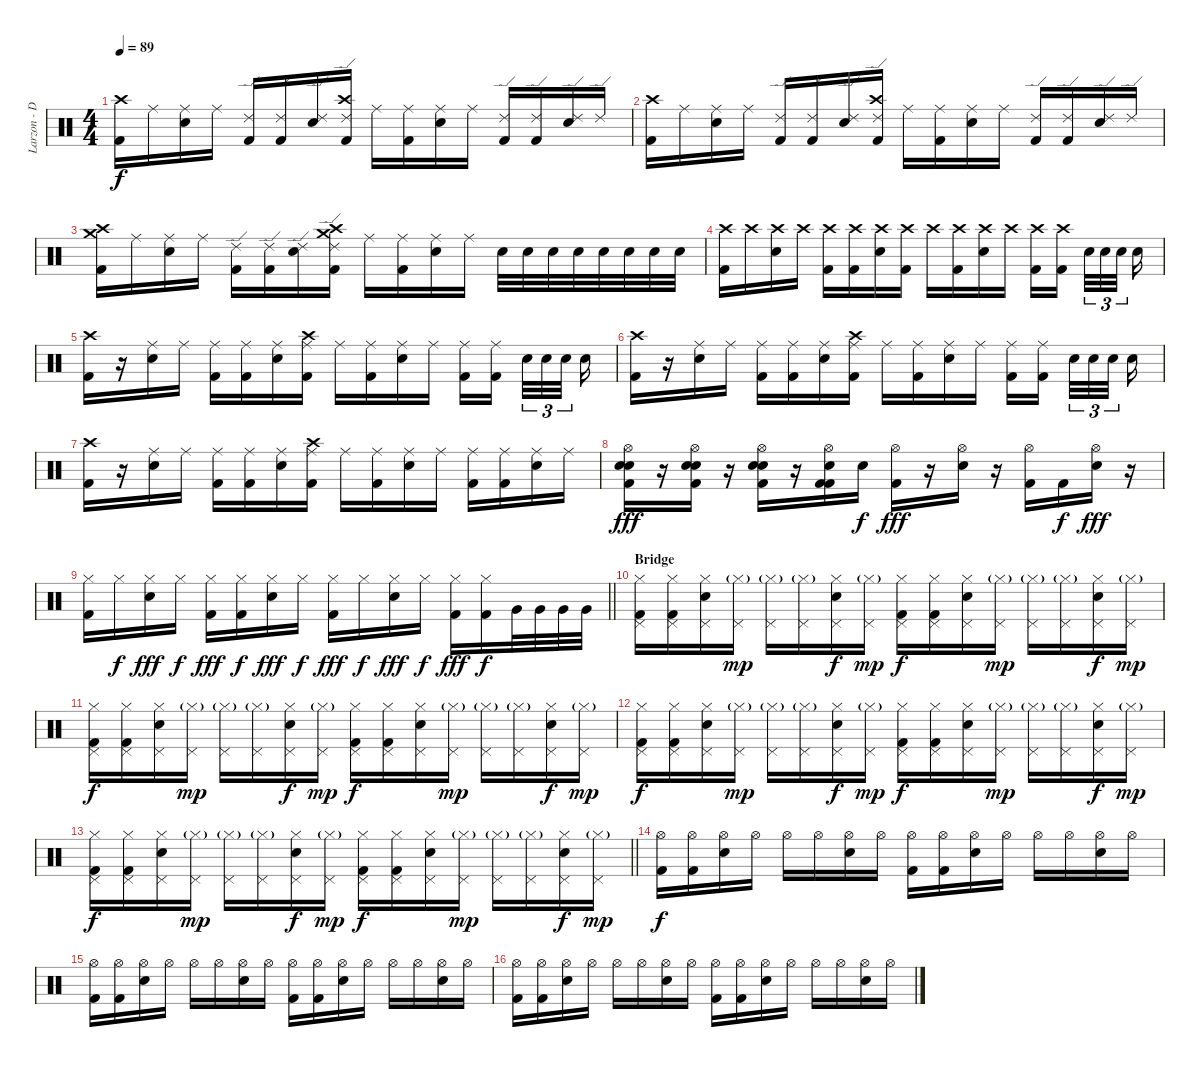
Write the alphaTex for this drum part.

\track ("Larzon - Drums" "Larzon - D") {instrument percussion}
\staff {score}
\articulation defaults
\ts (4 4)
\tempo 89
\clef neutral
\ks c
("Kick (hit) 2" "Crash high (hit)").16{dy f} "Ride (middle)".16 ("Snare (hit) 2" "Ride (middle)").16 "Ride (middle)".16 ("Kick (hit) 2" "Ride (edge) 2").16 ("Kick (hit) 2" "Ride (edge) 2").16 ("Snare (hit) 2" "Ride (edge) 2").16 ("Kick (hit) 2" "Crash high (hit)" "Ride (edge) 2").16 "Ride (middle)".16 ("Kick (hit) 2" "Ride (middle)").16 ("Snare (hit) 2" "Ride (middle)").16 "Ride (middle)".16 ("Kick (hit) 2" "Ride (edge) 2").16 ("Kick (hit) 2" "Ride (edge) 2").16 ("Snare (hit) 2" "Ride (edge) 2").16 "Ride (edge) 2".16 |
("Kick (hit) 2" "Crash high (hit)").16 "Ride (middle)".16 ("Snare (hit) 2" "Ride (middle)").16 "Ride (middle)".16 ("Kick (hit) 2" "Ride (edge) 2").16 ("Kick (hit) 2" "Ride (edge) 2").16 ("Snare (hit) 2" "Ride (edge) 2").16 ("Kick (hit) 2" "Crash high (hit)" "Ride (edge) 2").16 "Ride (middle)".16 ("Kick (hit) 2" "Ride (middle)").16 ("Snare (hit) 2" "Ride (middle)").16 "Ride (middle)".16 ("Kick (hit) 2" "Ride (edge) 2").16 ("Kick (hit) 2" "Ride (edge) 2").16 ("Snare (hit) 2" "Ride (edge) 2").16 "Ride (edge) 2".16 |
("Kick (hit) 2" "Crash medium (hit)" "Crash high (hit)").16 "Ride (middle)".16 ("Snare (hit) 2" "Ride (middle)").16 "Ride (middle)".16 ("Kick (hit) 2" "Ride (edge) 2").16 ("Kick (hit) 2" "Ride (edge) 2").16 ("Snare (hit) 2" "Ride (edge) 2").16 ("Kick (hit) 2" "Crash medium (hit)" "Crash high (hit)" "Ride (edge) 2").16 "Ride (middle)".16 ("Kick (hit) 2" "Ride (middle)").16 ("Snare (hit) 2" "Ride (middle)").16 "Ride (middle)".16 "Snare (hit) 2".32 "Snare (hit) 2".32 "Snare (hit) 2".32 "Snare (hit) 2".32 "Snare (hit) 2".32 "Snare (hit) 2".32 "Snare (hit) 2".32 "Snare (hit) 2".32 |
("Kick (hit) 2" "Crash high (hit)").16 "Crash high (hit)".16 ("Snare (hit) 2" "Crash high (hit)").16 "Crash high (hit)".16 ("Kick (hit) 2" "Crash high (hit)").16 ("Kick (hit) 2" "Crash high (hit)").16 ("Snare (hit) 2" "Crash high (hit)").16 ("Kick (hit) 2" "Crash high (hit)").16 "Crash high (hit)".16 ("Kick (hit) 2" "Crash high (hit)").16 ("Snare (hit) 2" "Crash high (hit)").16 "Crash high (hit)".16 ("Kick (hit) 2" "Crash high (hit)").16 ("Kick (hit) 2" "Crash high (hit)").16 "Snare (hit) 2".32{tu (3 2)} "Snare (hit) 2".32{tu (3 2)} "Snare (hit) 2".32{tu (3 2)} "Snare (hit) 2".16 |
("Kick (hit) 2" "Crash high (hit)").16 r.16 ("Snare (hit) 2" "Ride (middle)").16 "Ride (middle)".16 ("Kick (hit) 2" "Ride (middle)").16 ("Kick (hit) 2" "Ride (middle)").16 ("Snare (hit) 2" "Ride (middle)").16 ("Kick (hit) 2" "Crash high (hit)" "Ride (middle)").16 "Ride (middle)".16 ("Kick (hit) 2" "Ride (middle)").16 ("Snare (hit) 2" "Ride (middle)").16 "Ride (middle)".16 ("Kick (hit) 2" "Ride (middle)").16 ("Kick (hit) 2" "Ride (middle)").16 "Snare (hit) 2".32{tu (3 2)} "Snare (hit) 2".32{tu (3 2)} "Snare (hit) 2".32{tu (3 2)} "Snare (hit) 2".16 |
("Kick (hit) 2" "Crash high (hit)").16 r.16 ("Snare (hit) 2" "Ride (middle)").16 "Ride (middle)".16 ("Kick (hit) 2" "Ride (middle)").16 ("Kick (hit) 2" "Ride (middle)").16 ("Snare (hit) 2" "Ride (middle)").16 ("Kick (hit) 2" "Crash high (hit)" "Ride (middle)").16 "Ride (middle)".16 ("Kick (hit) 2" "Ride (middle)").16 ("Snare (hit) 2" "Ride (middle)").16 "Ride (middle)".16 ("Kick (hit) 2" "Ride (middle)").16 ("Kick (hit) 2" "Ride (middle)").16 "Snare (hit) 2".32{tu (3 2)} "Snare (hit) 2".32{tu (3 2)} "Snare (hit) 2".32{tu (3 2)} "Snare (hit) 2".16 |
("Kick (hit) 2" "Crash high (hit)").16 r.16 ("Snare (hit) 2" "Ride (middle)").16 "Ride (middle)".16 ("Kick (hit) 2" "Ride (middle)").16 ("Kick (hit) 2" "Ride (middle)").16 ("Snare (hit) 2" "Ride (middle)").16 ("Kick (hit) 2" "Crash high (hit)" "Ride (middle)").16 "Ride (middle)".16 ("Kick (hit) 2" "Ride (middle)").16 ("Snare (hit) 2" "Ride (middle)").16 "Ride (middle)".16 ("Kick (hit) 2" "Ride (middle)").16 ("Kick (hit) 2" "Ride (middle)").16 ("Snare (hit) 2" "Ride (middle)").16 "Ride (middle)".16 |
("Snare (hit) 2" "Kick (hit) 2" "Snare (hit) 2" "Hi-Hat (open)").16{dy fff} r.16 ("Snare (hit) 2" "Kick (hit) 2" "Snare (hit) 2" "Hi-Hat (open)").16 r.16 ("Snare (hit) 2" "Kick (hit) 2" "Snare (hit) 2" "Hi-Hat (open)").16 r.16 ("Kick (hit) 2" "Kick (hit) 2" "Snare (hit) 2" "Hi-Hat (open)").16 "Snare (hit) 2".16{dy f} ("Kick (hit) 2" "Hi-Hat (open)").16{dy fff} r.16 ("Snare (hit) 2" "Hi-Hat (open)").16 r.16 ("Kick (hit) 2" "Hi-Hat (open)").16 "Kick (hit) 2".16{dy f} ("Snare (hit) 2" "Hi-Hat (open)").16{dy fff} r.16 |
\barLineRight lightlight
("Kick (hit) 2" "Hi-Hat (closed)").16 "Hi-Hat (closed)".16{dy f} ("Snare (hit) 2" "Hi-Hat (closed)").16{dy fff} "Hi-Hat (closed)".16{dy f} ("Kick (hit) 2" "Hi-Hat (closed)").16{dy fff} ("Kick (hit) 2" "Hi-Hat (closed)").16{dy f} ("Snare (hit) 2" "Hi-Hat (closed)").16{dy fff} "Hi-Hat (closed)".16{dy f} ("Kick (hit) 2" "Hi-Hat (closed)").16{dy fff} "Hi-Hat (closed)".16{dy f} ("Snare (hit) 2" "Hi-Hat (closed)").16{dy fff} "Hi-Hat (closed)".16{dy f} ("Kick (hit) 2" "Hi-Hat (closed)").16{dy fff} ("Kick (hit) 2" "Hi-Hat (closed)").16{dy f} "Very Low Tom (hit)".32 "Very Low Tom (hit)".32 "Very Low Tom (hit)".32 "Very Low Tom (hit)".32 |
\section ("" "Bridge")
("Kick (hit) 2" "Pedal Hi-Hat (hit)" "Hi-Hat (closed)").16 ("Kick (hit) 2" "Pedal Hi-Hat (hit)" "Hi-Hat (closed)").16 ("Snare (hit) 2" "Pedal Hi-Hat (hit)" "Hi-Hat (closed)").16 ("Pedal Hi-Hat (hit)" "Hi-Hat (closed)"{g}).16{dy mp} ("Pedal Hi-Hat (hit)" "Hi-Hat (closed)"{g}).16 ("Pedal Hi-Hat (hit)" "Hi-Hat (closed)"{g}).16 ("Snare (hit) 2" "Pedal Hi-Hat (hit)" "Hi-Hat (closed)").16{dy f} ("Pedal Hi-Hat (hit)" "Hi-Hat (closed)"{g}).16{dy mp} ("Kick (hit) 2" "Pedal Hi-Hat (hit)" "Hi-Hat (closed)").16{dy f} ("Kick (hit) 2" "Pedal Hi-Hat (hit)" "Hi-Hat (closed)").16 ("Snare (hit) 2" "Pedal Hi-Hat (hit)" "Hi-Hat (closed)").16 ("Pedal Hi-Hat (hit)" "Hi-Hat (closed)"{g}).16{dy mp} ("Pedal Hi-Hat (hit)" "Hi-Hat (closed)"{g}).16 ("Pedal Hi-Hat (hit)" "Hi-Hat (closed)"{g}).16 ("Snare (hit) 2" "Pedal Hi-Hat (hit)" "Hi-Hat (closed)").16{dy f} ("Pedal Hi-Hat (hit)" "Hi-Hat (closed)"{g}).16{dy mp} |
("Kick (hit) 2" "Pedal Hi-Hat (hit)" "Hi-Hat (closed)").16{dy f} ("Kick (hit) 2" "Pedal Hi-Hat (hit)" "Hi-Hat (closed)").16 ("Snare (hit) 2" "Pedal Hi-Hat (hit)" "Hi-Hat (closed)").16 ("Pedal Hi-Hat (hit)" "Hi-Hat (closed)"{g}).16{dy mp} ("Pedal Hi-Hat (hit)" "Hi-Hat (closed)"{g}).16 ("Pedal Hi-Hat (hit)" "Hi-Hat (closed)"{g}).16 ("Snare (hit) 2" "Pedal Hi-Hat (hit)" "Hi-Hat (closed)").16{dy f} ("Pedal Hi-Hat (hit)" "Hi-Hat (closed)"{g}).16{dy mp} ("Kick (hit) 2" "Pedal Hi-Hat (hit)" "Hi-Hat (closed)").16{dy f} ("Kick (hit) 2" "Pedal Hi-Hat (hit)" "Hi-Hat (closed)").16 ("Snare (hit) 2" "Pedal Hi-Hat (hit)" "Hi-Hat (closed)").16 ("Pedal Hi-Hat (hit)" "Hi-Hat (closed)"{g}).16{dy mp} ("Pedal Hi-Hat (hit)" "Hi-Hat (closed)"{g}).16 ("Pedal Hi-Hat (hit)" "Hi-Hat (closed)"{g}).16 ("Snare (hit) 2" "Pedal Hi-Hat (hit)" "Hi-Hat (closed)").16{dy f} ("Pedal Hi-Hat (hit)" "Hi-Hat (closed)"{g}).16{dy mp} |
("Kick (hit) 2" "Pedal Hi-Hat (hit)" "Hi-Hat (closed)").16{dy f} ("Kick (hit) 2" "Pedal Hi-Hat (hit)" "Hi-Hat (closed)").16 ("Snare (hit) 2" "Pedal Hi-Hat (hit)" "Hi-Hat (closed)").16 ("Pedal Hi-Hat (hit)" "Hi-Hat (closed)"{g}).16{dy mp} ("Pedal Hi-Hat (hit)" "Hi-Hat (closed)"{g}).16 ("Pedal Hi-Hat (hit)" "Hi-Hat (closed)"{g}).16 ("Snare (hit) 2" "Pedal Hi-Hat (hit)" "Hi-Hat (closed)").16{dy f} ("Pedal Hi-Hat (hit)" "Hi-Hat (closed)"{g}).16{dy mp} ("Kick (hit) 2" "Pedal Hi-Hat (hit)" "Hi-Hat (closed)").16{dy f} ("Kick (hit) 2" "Pedal Hi-Hat (hit)" "Hi-Hat (closed)").16 ("Snare (hit) 2" "Pedal Hi-Hat (hit)" "Hi-Hat (closed)").16 ("Pedal Hi-Hat (hit)" "Hi-Hat (closed)"{g}).16{dy mp} ("Pedal Hi-Hat (hit)" "Hi-Hat (closed)"{g}).16 ("Pedal Hi-Hat (hit)" "Hi-Hat (closed)"{g}).16 ("Snare (hit) 2" "Pedal Hi-Hat (hit)" "Hi-Hat (closed)").16{dy f} ("Pedal Hi-Hat (hit)" "Hi-Hat (closed)"{g}).16{dy mp} |
\barLineRight lightlight
("Kick (hit) 2" "Pedal Hi-Hat (hit)" "Hi-Hat (closed)").16{dy f} ("Kick (hit) 2" "Pedal Hi-Hat (hit)" "Hi-Hat (closed)").16 ("Snare (hit) 2" "Pedal Hi-Hat (hit)" "Hi-Hat (closed)").16 ("Pedal Hi-Hat (hit)" "Hi-Hat (closed)"{g}).16{dy mp} ("Pedal Hi-Hat (hit)" "Hi-Hat (closed)"{g}).16 ("Pedal Hi-Hat (hit)" "Hi-Hat (closed)"{g}).16 ("Snare (hit) 2" "Pedal Hi-Hat (hit)" "Hi-Hat (closed)").16{dy f} ("Pedal Hi-Hat (hit)" "Hi-Hat (closed)"{g}).16{dy mp} ("Kick (hit) 2" "Pedal Hi-Hat (hit)" "Hi-Hat (closed)").16{dy f} ("Kick (hit) 2" "Pedal Hi-Hat (hit)" "Hi-Hat (closed)").16 ("Snare (hit) 2" "Pedal Hi-Hat (hit)" "Hi-Hat (closed)").16 ("Pedal Hi-Hat (hit)" "Hi-Hat (closed)"{g}).16{dy mp} ("Pedal Hi-Hat (hit)" "Hi-Hat (closed)"{g}).16 ("Pedal Hi-Hat (hit)" "Hi-Hat (closed)"{g}).16 ("Snare (hit) 2" "Pedal Hi-Hat (hit)" "Hi-Hat (closed)").16{dy f} ("Pedal Hi-Hat (hit)" "Hi-Hat (closed)"{g}).16{dy mp} |
("Kick (hit) 2" "Hi-Hat (open)").16{dy f} ("Kick (hit) 2" "Hi-Hat (open)").16 ("Snare (hit) 2" "Hi-Hat (open)").16 "Hi-Hat (open)".16 "Hi-Hat (open)".16 "Hi-Hat (open)".16 ("Snare (hit) 2" "Hi-Hat (open)").16 "Hi-Hat (open)".16 ("Kick (hit) 2" "Hi-Hat (open)").16 ("Kick (hit) 2" "Hi-Hat (open)").16 ("Snare (hit) 2" "Hi-Hat (open)").16 "Hi-Hat (open)".16 "Hi-Hat (open)".16 "Hi-Hat (open)".16 ("Snare (hit) 2" "Hi-Hat (open)").16 "Hi-Hat (open)".16 |
("Kick (hit) 2" "Hi-Hat (open)").16 ("Kick (hit) 2" "Hi-Hat (open)").16 ("Snare (hit) 2" "Hi-Hat (open)").16 "Hi-Hat (open)".16 "Hi-Hat (open)".16 "Hi-Hat (open)".16 ("Snare (hit) 2" "Hi-Hat (open)").16 "Hi-Hat (open)".16 ("Kick (hit) 2" "Hi-Hat (open)").16 ("Kick (hit) 2" "Hi-Hat (open)").16 ("Snare (hit) 2" "Hi-Hat (open)").16 "Hi-Hat (open)".16 "Hi-Hat (open)".16 "Hi-Hat (open)".16 ("Snare (hit) 2" "Hi-Hat (open)").16 "Hi-Hat (open)".16 |
("Kick (hit) 2" "Hi-Hat (open)").16 ("Kick (hit) 2" "Hi-Hat (open)").16 ("Snare (hit) 2" "Hi-Hat (open)").16 "Hi-Hat (open)".16 "Hi-Hat (open)".16 "Hi-Hat (open)".16 ("Snare (hit) 2" "Hi-Hat (open)").16 "Hi-Hat (open)".16 ("Kick (hit) 2" "Hi-Hat (open)").16 ("Kick (hit) 2" "Hi-Hat (open)").16 ("Snare (hit) 2" "Hi-Hat (open)").16 "Hi-Hat (open)".16 "Hi-Hat (open)".16 "Hi-Hat (open)".16 ("Snare (hit) 2" "Hi-Hat (open)").16 "Hi-Hat (open)".16
